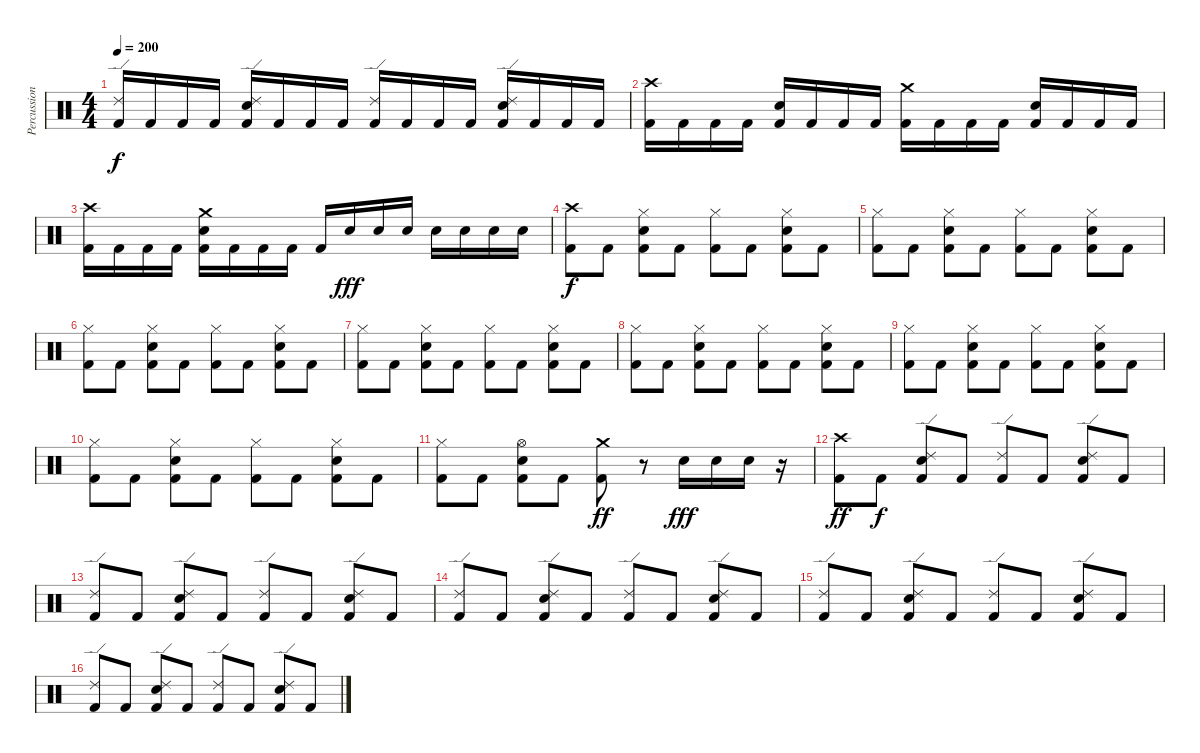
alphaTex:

\track ("Percussion" "Percussion") {instrument percussion}
\staff {score}
\articulation defaults
\ts (4 4)
\tempo 200
\clef neutral
\ks c
("Ride (edge) 2" "Kick (hit) 2").16{dy f} "Kick (hit) 2".16 "Kick (hit) 2".16 "Kick (hit) 2".16 ("Ride (edge) 2" "Snare (hit) 2" "Kick (hit) 2").16 "Kick (hit) 2".16 "Kick (hit) 2".16 "Kick (hit) 2".16 ("Ride (edge) 2" "Kick (hit) 2").16 "Kick (hit) 2".16 "Kick (hit) 2".16 "Kick (hit) 2".16 ("Ride (edge) 2" "Snare (hit) 2" "Kick (hit) 2").16 "Kick (hit) 2".16 "Kick (hit) 2".16 "Kick (hit) 2".16 |
("Crash high (hit)" "Kick (hit) 2").16 "Kick (hit) 2".16 "Kick (hit) 2".16 "Kick (hit) 2".16 ("Snare (hit) 2" "Kick (hit) 2").16 "Kick (hit) 2".16 "Kick (hit) 2".16 "Kick (hit) 2".16 ("Crash medium (hit)" "Kick (hit) 2").16 "Kick (hit) 2".16 "Kick (hit) 2".16 "Kick (hit) 2".16 ("Snare (hit) 2" "Kick (hit) 2").16 "Kick (hit) 2".16 "Kick (hit) 2".16 "Kick (hit) 2".16 |
("Crash high (hit)" "Kick (hit) 2").16 "Kick (hit) 2".16 "Kick (hit) 2".16 "Kick (hit) 2".16 ("Crash medium (hit)" "Snare (hit) 2" "Kick (hit) 2").16 "Kick (hit) 2".16 "Kick (hit) 2".16 "Kick (hit) 2".16 "Kick (hit) 2".16 "Snare (hit) 2".16{dy fff} "Snare (hit) 2".16 "Snare (hit) 2".16 "Snare (hit) 2".16 "Snare (hit) 2".16 "Snare (hit) 2".16 "Snare (hit) 2".16 |
("Crash high (hit)" "Kick (hit) 2").8{dy f} "Kick (hit) 2".8 ("Hi-Hat (closed)" "Snare (hit) 2" "Kick (hit) 2").8 "Kick (hit) 2".8 ("Hi-Hat (closed)" "Kick (hit) 2").8 "Kick (hit) 2".8 ("Hi-Hat (closed)" "Snare (hit) 2" "Kick (hit) 2").8 "Kick (hit) 2".8 |
("Hi-Hat (closed)" "Kick (hit) 2").8 "Kick (hit) 2".8 ("Hi-Hat (closed)" "Snare (hit) 2" "Kick (hit) 2").8 "Kick (hit) 2".8 ("Hi-Hat (closed)" "Kick (hit) 2").8 "Kick (hit) 2".8 ("Hi-Hat (closed)" "Snare (hit) 2" "Kick (hit) 2").8 "Kick (hit) 2".8 |
("Hi-Hat (closed)" "Kick (hit) 2").8 "Kick (hit) 2".8 ("Hi-Hat (closed)" "Snare (hit) 2" "Kick (hit) 2").8 "Kick (hit) 2".8 ("Hi-Hat (closed)" "Kick (hit) 2").8 "Kick (hit) 2".8 ("Hi-Hat (closed)" "Snare (hit) 2" "Kick (hit) 2").8 "Kick (hit) 2".8 |
("Hi-Hat (closed)" "Kick (hit) 2").8 "Kick (hit) 2".8 ("Hi-Hat (closed)" "Snare (hit) 2" "Kick (hit) 2").8 "Kick (hit) 2".8 ("Hi-Hat (closed)" "Kick (hit) 2").8 "Kick (hit) 2".8 ("Hi-Hat (closed)" "Snare (hit) 2" "Kick (hit) 2").8 "Kick (hit) 2".8 |
("Hi-Hat (closed)" "Kick (hit) 2").8 "Kick (hit) 2".8 ("Hi-Hat (closed)" "Snare (hit) 2" "Kick (hit) 2").8 "Kick (hit) 2".8 ("Hi-Hat (closed)" "Kick (hit) 2").8 "Kick (hit) 2".8 ("Hi-Hat (closed)" "Snare (hit) 2" "Kick (hit) 2").8 "Kick (hit) 2".8 |
("Hi-Hat (closed)" "Kick (hit) 2").8 "Kick (hit) 2".8 ("Hi-Hat (closed)" "Snare (hit) 2" "Kick (hit) 2").8 "Kick (hit) 2".8 ("Hi-Hat (closed)" "Kick (hit) 2").8 "Kick (hit) 2".8 ("Hi-Hat (closed)" "Snare (hit) 2" "Kick (hit) 2").8 "Kick (hit) 2".8 |
("Hi-Hat (closed)" "Kick (hit) 2").8 "Kick (hit) 2".8 ("Hi-Hat (closed)" "Snare (hit) 2" "Kick (hit) 2").8 "Kick (hit) 2".8 ("Hi-Hat (closed)" "Kick (hit) 2").8 "Kick (hit) 2".8 ("Hi-Hat (closed)" "Snare (hit) 2" "Kick (hit) 2").8 "Kick (hit) 2".8 |
("Hi-Hat (closed)" "Kick (hit) 2").8 "Kick (hit) 2".8 ("Hi-Hat (open)" "Snare (hit) 2" "Kick (hit) 2").8 "Kick (hit) 2".8 ("Crash medium (hit)" "Kick (hit) 2").8{dy ff} r.8 "Snare (hit) 2".16{dy fff} "Snare (hit) 2".16 "Snare (hit) 2".16 r.16 |
("Crash high (hit)" "Kick (hit) 2").8{dy ff} "Kick (hit) 2".8{dy f} ("Ride (edge) 2" "Snare (hit) 2" "Kick (hit) 2").8 "Kick (hit) 2".8 ("Ride (edge) 2" "Kick (hit) 2").8 "Kick (hit) 2".8 ("Ride (edge) 2" "Snare (hit) 2" "Kick (hit) 2").8 "Kick (hit) 2".8 |
("Ride (edge) 2" "Kick (hit) 2").8 "Kick (hit) 2".8 ("Ride (edge) 2" "Snare (hit) 2" "Kick (hit) 2").8 "Kick (hit) 2".8 ("Ride (edge) 2" "Kick (hit) 2").8 "Kick (hit) 2".8 ("Ride (edge) 2" "Snare (hit) 2" "Kick (hit) 2").8 "Kick (hit) 2".8 |
("Ride (edge) 2" "Kick (hit) 2").8 "Kick (hit) 2".8 ("Ride (edge) 2" "Snare (hit) 2" "Kick (hit) 2").8 "Kick (hit) 2".8 ("Ride (edge) 2" "Kick (hit) 2").8 "Kick (hit) 2".8 ("Ride (edge) 2" "Snare (hit) 2" "Kick (hit) 2").8 "Kick (hit) 2".8 |
("Ride (edge) 2" "Kick (hit) 2").8 "Kick (hit) 2".8 ("Ride (edge) 2" "Snare (hit) 2" "Kick (hit) 2").8 "Kick (hit) 2".8 ("Ride (edge) 2" "Kick (hit) 2").8 "Kick (hit) 2".8 ("Ride (edge) 2" "Snare (hit) 2" "Kick (hit) 2").8 "Kick (hit) 2".8 |
("Ride (edge) 2" "Kick (hit) 2").8 "Kick (hit) 2".8 ("Ride (edge) 2" "Snare (hit) 2" "Kick (hit) 2").8 "Kick (hit) 2".8 ("Ride (edge) 2" "Kick (hit) 2").8 "Kick (hit) 2".8 ("Ride (edge) 2" "Snare (hit) 2" "Kick (hit) 2").8 "Kick (hit) 2".8
